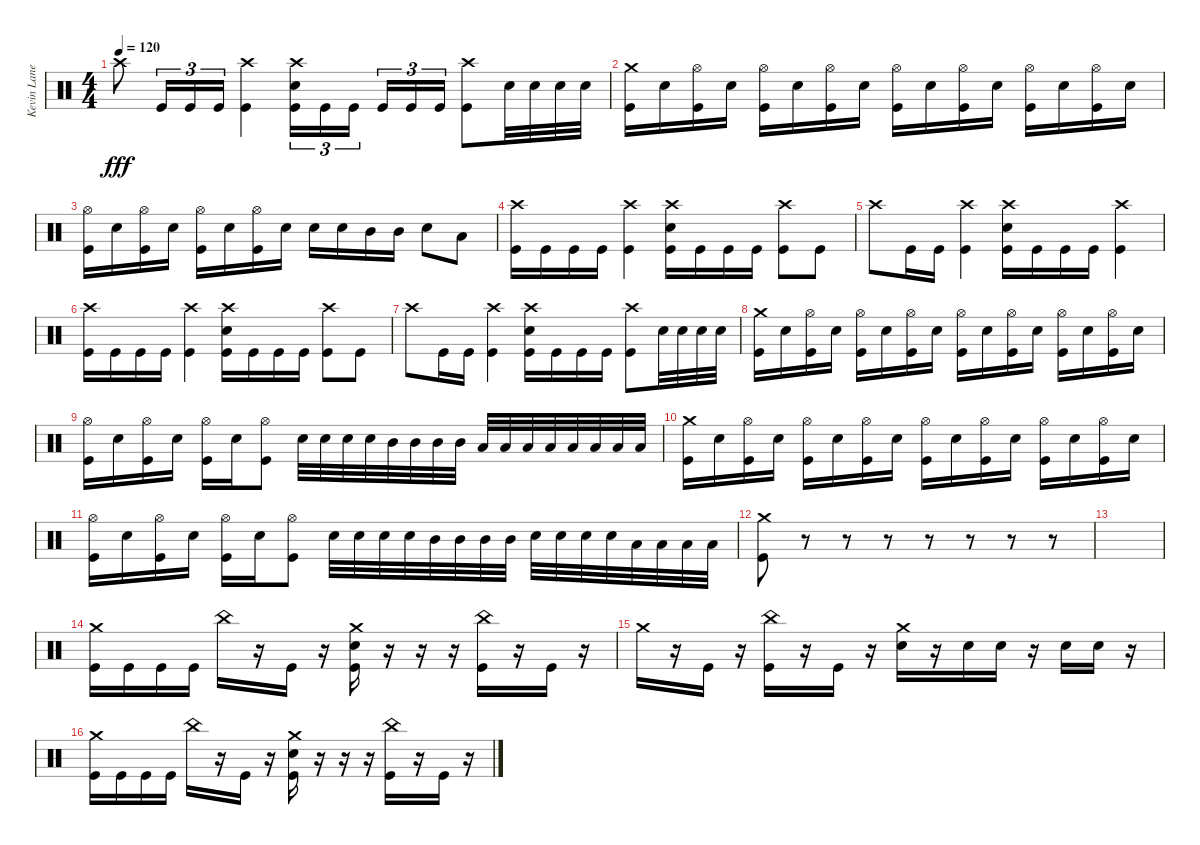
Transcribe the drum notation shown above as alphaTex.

\track ("Kevin Lane" "Kevin Lane") {instrument percussion}
\staff {score}
\articulation defaults
\ts (4 4)
\tempo 120
\clef neutral
\ks c "Crash high (hit)".8{dy fff} "Kick (hit)".16{tu (3 2)} "Kick (hit)".16{tu (3 2)} "Kick (hit)".16{tu (3 2)}
("Crash high (hit)" "Kick (hit)").4 ("Crash high (hit)" "Snare (hit) 2" "Kick (hit)").16{tu (3 2)} "Kick (hit)".16{tu (3 2)} "Kick (hit)".16{tu (3 2) beam splitsecondary} "Kick (hit)".16{tu (3 2)} "Kick (hit)".16{tu (3 2)} "Kick (hit)".16{tu (3 2)} ("Crash high (hit)" "Kick (hit)").8 "Snare (hit) 2".32 "Snare (hit) 2".32 "Snare (hit) 2".32 "Snare (hit) 2".32 |
("Crash medium (hit)" "Kick (hit)").16 "Snare (hit) 2".16 ("Hi-Hat (open)" "Kick (hit)").16 "Snare (hit) 2".16 ("Hi-Hat (open)" "Kick (hit)").16 "Snare (hit) 2".16 ("Hi-Hat (open)" "Kick (hit)").16 "Snare (hit) 2".16 ("Hi-Hat (open)" "Kick (hit)").16 "Snare (hit) 2".16 ("Hi-Hat (open)" "Kick (hit)").16 "Snare (hit) 2".16 ("Hi-Hat (open)" "Kick (hit)").16 "Snare (hit) 2".16 ("Hi-Hat (open)" "Kick (hit)").16 "Snare (hit) 2".16 |
("Hi-Hat (open)" "Kick (hit)").16 "Snare (hit) 2".16 ("Hi-Hat (open)" "Kick (hit)").16 "Snare (hit) 2".16 ("Hi-Hat (open)" "Kick (hit)").16 "Snare (hit) 2".16 ("Hi-Hat (open)" "Kick (hit)").16 "Snare (hit) 2".16 "Snare (hit) 2".16 "Snare (hit) 2".16 "Mid Tom (hit)".16 "Mid Tom (hit)".16 "Snare (hit) 2".8 "Low Tom (hit)".8 |
("Crash high (hit)" "Kick (hit)").16 "Kick (hit)".16 "Kick (hit)".16 "Kick (hit)".16 ("Crash high (hit)" "Kick (hit)").4 ("Crash high (hit)" "Snare (hit) 2" "Kick (hit)").16 "Kick (hit)".16 "Kick (hit)".16 "Kick (hit)".16 ("Crash high (hit)" "Kick (hit)").8 "Kick (hit)".8 |
"Crash high (hit)".8 "Kick (hit)".16 "Kick (hit)".16 ("Crash high (hit)" "Kick (hit)").4 ("Crash high (hit)" "Snare (hit) 2" "Kick (hit)").16 "Kick (hit)".16 "Kick (hit)".16 "Kick (hit)".16 ("Crash high (hit)" "Kick (hit)").4 |
("Crash high (hit)" "Kick (hit)").16 "Kick (hit)".16 "Kick (hit)".16 "Kick (hit)".16 ("Crash high (hit)" "Kick (hit)").4 ("Crash high (hit)" "Snare (hit) 2" "Kick (hit)").16 "Kick (hit)".16 "Kick (hit)".16 "Kick (hit)".16 ("Crash high (hit)" "Kick (hit)").8 "Kick (hit)".8 |
"Crash high (hit)".8 "Kick (hit)".16 "Kick (hit)".16 ("Crash high (hit)" "Kick (hit)").4 ("Crash high (hit)" "Snare (hit) 2" "Kick (hit)").16 "Kick (hit)".16 "Kick (hit)".16 "Kick (hit)".16 ("Crash high (hit)" "Kick (hit)").8 "Snare (hit) 2".32 "Snare (hit) 2".32 "Snare (hit) 2".32 "Snare (hit) 2".32 |
("Crash medium (hit)" "Kick (hit)").16 "Snare (hit) 2".16 ("Hi-Hat (open)" "Kick (hit)").16 "Snare (hit) 2".16 ("Hi-Hat (open)" "Kick (hit)").16 "Snare (hit) 2".16 ("Hi-Hat (open)" "Kick (hit)").16 "Snare (hit) 2".16 ("Hi-Hat (open)" "Kick (hit)").16 "Snare (hit) 2".16 ("Hi-Hat (open)" "Kick (hit)").16 "Snare (hit) 2".16 ("Hi-Hat (open)" "Kick (hit)").16 "Snare (hit) 2".16 ("Hi-Hat (open)" "Kick (hit)").16 "Snare (hit) 2".16 |
("Hi-Hat (open)" "Kick (hit)").16 "Snare (hit) 2".16 ("Hi-Hat (open)" "Kick (hit)").16 "Snare (hit) 2".16 ("Hi-Hat (open)" "Kick (hit)").16 "Snare (hit) 2".16 ("Hi-Hat (open)" "Kick (hit)").8 "Snare (hit) 2".32 "Snare (hit) 2".32 "Snare (hit) 2".32 "Snare (hit) 2".32 "Mid Tom (hit)".32 "Mid Tom (hit)".32 "Mid Tom (hit)".32 "Mid Tom (hit)".32 "Low Tom (hit)".32 "Low Tom (hit)".32 "Low Tom (hit)".32 "Low Tom (hit)".32 "Low Floor Tom (hit)".32 "Low Floor Tom (hit)".32 "Low Floor Tom (hit)".32 "Low Floor Tom (hit)".32 |
("Crash medium (hit)" "Kick (hit)").16 "Snare (hit) 2".16 ("Hi-Hat (open)" "Kick (hit)").16 "Snare (hit) 2".16 ("Hi-Hat (open)" "Kick (hit)").16 "Snare (hit) 2".16 ("Hi-Hat (open)" "Kick (hit)").16 "Snare (hit) 2".16 ("Hi-Hat (open)" "Kick (hit)").16 "Snare (hit) 2".16 ("Hi-Hat (open)" "Kick (hit)").16 "Snare (hit) 2".16 ("Hi-Hat (open)" "Kick (hit)").16 "Snare (hit) 2".16 ("Hi-Hat (open)" "Kick (hit)").16 "Snare (hit) 2".16 |
("Hi-Hat (open)" "Kick (hit)").16 "Snare (hit) 2".16 ("Hi-Hat (open)" "Kick (hit)").16 "Snare (hit) 2".16 ("Hi-Hat (open)" "Kick (hit)").16 "Snare (hit) 2".16 ("Hi-Hat (open)" "Kick (hit)").8 "Snare (hit) 2".32 "Snare (hit) 2".32 "Snare (hit) 2".32 "Snare (hit) 2".32 "Mid Tom (hit)".32 "Mid Tom (hit)".32 "Mid Tom (hit)".32 "Mid Tom (hit)".32 "Snare (hit) 2".32 "Snare (hit) 2".32 "Snare (hit) 2".32 "Snare (hit) 2".32 "Low Tom (hit)".32 "Low Tom (hit)".32 "Low Tom (hit)".32 "Low Tom (hit)".32 |
("Crash medium (hit)" "Kick (hit)").8{volume 13} r.8{volume 0} r.8 r.8 r.8 r.8 r.8 r.8 |
|
("Crash medium (hit)" "Kick (hit)").16{volume 13} "Kick (hit)".16 "Kick (hit)".16 "Kick (hit)".16 "China (hit)".16 r.16 "Kick (hit)".16 r.16 ("Crash medium (hit)" "Snare (hit) 2" "Kick (hit)").16 r.16 r.16 r.16 ("China (hit)" "Kick (hit)").16 r.16 "Kick (hit)".16 r.16 |
"Crash medium (hit)".16 r.16 "Kick (hit)".16 r.16 ("China (hit)" "Kick (hit)").16 r.16 "Kick (hit)".16 r.16 ("Crash medium (hit)" "Snare (hit) 2").16 r.16 "Snare (hit) 2".16 "Snare (hit) 2".16 r.16 "Snare (hit) 2".16 "Snare (hit) 2".16 r.16 |
("Crash medium (hit)" "Kick (hit)").16 "Kick (hit)".16 "Kick (hit)".16 "Kick (hit)".16 "China (hit)".16 r.16 "Kick (hit)".16 r.16 ("Crash medium (hit)" "Snare (hit) 2" "Kick (hit)").16 r.16 r.16 r.16 ("China (hit)" "Kick (hit)").16 r.16 "Kick (hit)".16 r.16
